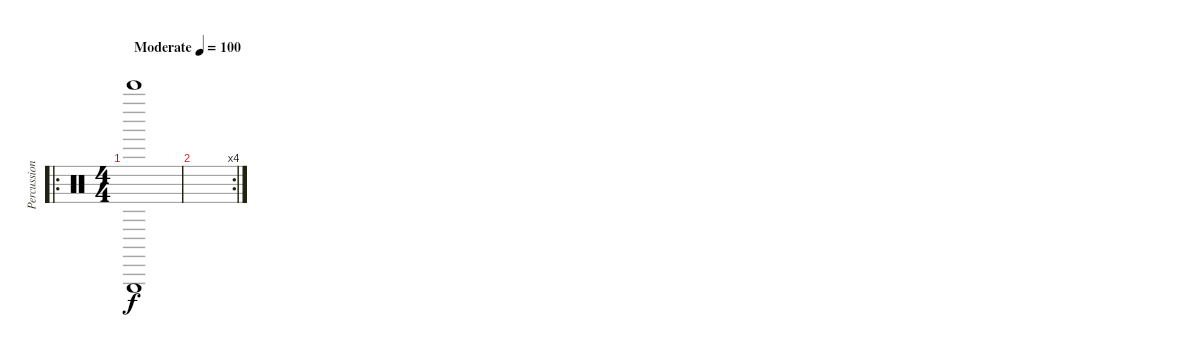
\track ("Percussion" "Percussion") {instrument percussion}
\staff {score}
\articulation defaults
\ro
\ts (4 4)
\tempo (100 "Moderate")
\clef neutral
\ks c
("Triangle (hit)" "Bell Tree (hit)").1{dy f} |
\rc 4
